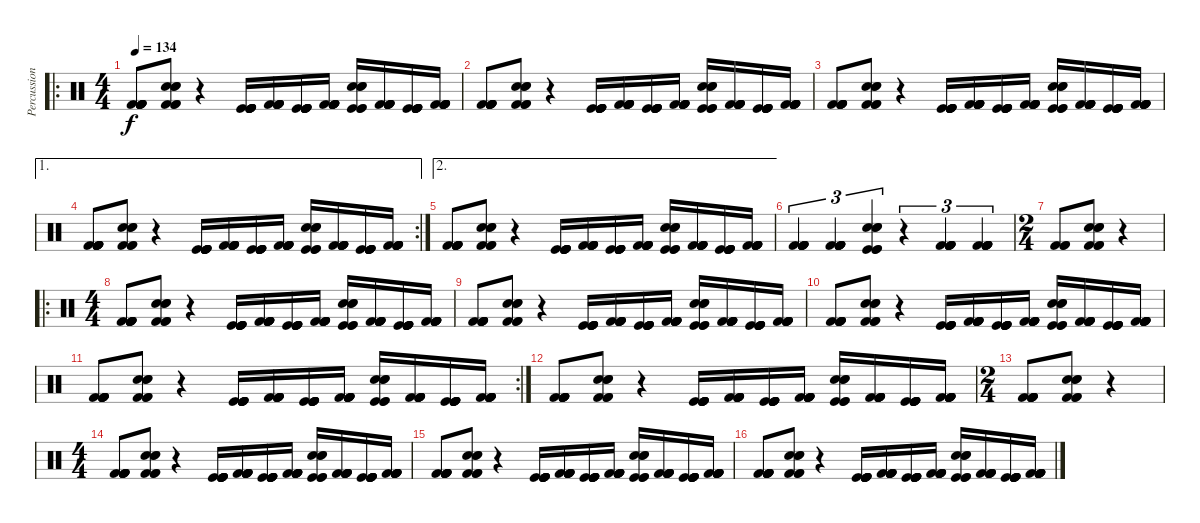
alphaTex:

\track ("Percussion" "Percussion") {instrument percussion}
\staff {score}
\articulation defaults
\ro
\ts (4 4)
\tempo 134
\clef neutral
\ks c
("Kick (hit) 2" "Kick (hit) 2" "Kick (hit) 2" "Kick (hit) 2" "Kick (hit) 2" "Kick (hit) 2").8{dy f} ("Electric Snare (hit)" "Electric Snare (hit)" "Electric Snare (hit)" "Kick (hit) 2" "Kick (hit) 2" "Kick (hit) 2").8 r.4 ("Kick (hit)" "Kick (hit)" "Kick (hit)" "Kick (hit)" "Kick (hit)" "Kick (hit)").16 ("Kick (hit) 2" "Kick (hit) 2" "Kick (hit) 2" "Kick (hit) 2" "Kick (hit) 2" "Kick (hit) 2").16 ("Kick (hit)" "Kick (hit)" "Kick (hit)" "Kick (hit)" "Kick (hit)" "Kick (hit)").16 ("Kick (hit) 2" "Kick (hit) 2" "Kick (hit) 2" "Kick (hit) 2" "Kick (hit) 2" "Kick (hit) 2").16 ("Electric Snare (hit)" "Electric Snare (hit)" "Electric Snare (hit)" "Kick (hit)" "Kick (hit)" "Kick (hit)").16 ("Kick (hit) 2" "Kick (hit) 2" "Kick (hit) 2" "Kick (hit) 2" "Kick (hit) 2" "Kick (hit) 2").16 ("Kick (hit)" "Kick (hit)" "Kick (hit)" "Kick (hit)" "Kick (hit)" "Kick (hit)").16 ("Kick (hit) 2" "Kick (hit) 2" "Kick (hit) 2" "Kick (hit) 2" "Kick (hit) 2" "Kick (hit) 2").16 |
("Kick (hit) 2" "Kick (hit) 2" "Kick (hit) 2" "Kick (hit) 2" "Kick (hit) 2" "Kick (hit) 2").8 ("Electric Snare (hit)" "Electric Snare (hit)" "Electric Snare (hit)" "Kick (hit) 2" "Kick (hit) 2" "Kick (hit) 2").8 r.4 ("Kick (hit)" "Kick (hit)" "Kick (hit)" "Kick (hit)" "Kick (hit)" "Kick (hit)").16 ("Kick (hit) 2" "Kick (hit) 2" "Kick (hit) 2" "Kick (hit) 2" "Kick (hit) 2" "Kick (hit) 2").16 ("Kick (hit)" "Kick (hit)" "Kick (hit)" "Kick (hit)" "Kick (hit)" "Kick (hit)").16 ("Kick (hit) 2" "Kick (hit) 2" "Kick (hit) 2" "Kick (hit) 2" "Kick (hit) 2" "Kick (hit) 2").16 ("Electric Snare (hit)" "Electric Snare (hit)" "Electric Snare (hit)" "Kick (hit)" "Kick (hit)" "Kick (hit)").16 ("Kick (hit) 2" "Kick (hit) 2" "Kick (hit) 2" "Kick (hit) 2" "Kick (hit) 2" "Kick (hit) 2").16 ("Kick (hit)" "Kick (hit)" "Kick (hit)" "Kick (hit)" "Kick (hit)" "Kick (hit)").16 ("Kick (hit) 2" "Kick (hit) 2" "Kick (hit) 2" "Kick (hit) 2" "Kick (hit) 2" "Kick (hit) 2").16 |
("Kick (hit) 2" "Kick (hit) 2" "Kick (hit) 2" "Kick (hit) 2" "Kick (hit) 2" "Kick (hit) 2").8 ("Electric Snare (hit)" "Electric Snare (hit)" "Electric Snare (hit)" "Kick (hit) 2" "Kick (hit) 2" "Kick (hit) 2").8 r.4 ("Kick (hit)" "Kick (hit)" "Kick (hit)" "Kick (hit)" "Kick (hit)" "Kick (hit)").16 ("Kick (hit) 2" "Kick (hit) 2" "Kick (hit) 2" "Kick (hit) 2" "Kick (hit) 2" "Kick (hit) 2").16 ("Kick (hit)" "Kick (hit)" "Kick (hit)" "Kick (hit)" "Kick (hit)" "Kick (hit)").16 ("Kick (hit) 2" "Kick (hit) 2" "Kick (hit) 2" "Kick (hit) 2" "Kick (hit) 2" "Kick (hit) 2").16 ("Electric Snare (hit)" "Electric Snare (hit)" "Electric Snare (hit)" "Kick (hit)" "Kick (hit)" "Kick (hit)").16 ("Kick (hit) 2" "Kick (hit) 2" "Kick (hit) 2" "Kick (hit) 2" "Kick (hit) 2" "Kick (hit) 2").16 ("Kick (hit)" "Kick (hit)" "Kick (hit)" "Kick (hit)" "Kick (hit)" "Kick (hit)").16 ("Kick (hit) 2" "Kick (hit) 2" "Kick (hit) 2" "Kick (hit) 2" "Kick (hit) 2" "Kick (hit) 2").16 |
\ae 1
\rc 2
("Kick (hit) 2" "Kick (hit) 2" "Kick (hit) 2" "Kick (hit) 2" "Kick (hit) 2" "Kick (hit) 2").8 ("Electric Snare (hit)" "Electric Snare (hit)" "Electric Snare (hit)" "Kick (hit) 2" "Kick (hit) 2" "Kick (hit) 2").8 r.4 ("Kick (hit)" "Kick (hit)" "Kick (hit)" "Kick (hit)" "Kick (hit)" "Kick (hit)").16 ("Kick (hit) 2" "Kick (hit) 2" "Kick (hit) 2" "Kick (hit) 2" "Kick (hit) 2" "Kick (hit) 2").16 ("Kick (hit)" "Kick (hit)" "Kick (hit)" "Kick (hit)" "Kick (hit)" "Kick (hit)").16 ("Kick (hit) 2" "Kick (hit) 2" "Kick (hit) 2" "Kick (hit) 2" "Kick (hit) 2" "Kick (hit) 2").16 ("Electric Snare (hit)" "Electric Snare (hit)" "Electric Snare (hit)" "Kick (hit)" "Kick (hit)" "Kick (hit)").16 ("Kick (hit) 2" "Kick (hit) 2" "Kick (hit) 2" "Kick (hit) 2" "Kick (hit) 2" "Kick (hit) 2").16 ("Kick (hit)" "Kick (hit)" "Kick (hit)" "Kick (hit)" "Kick (hit)" "Kick (hit)").16 ("Kick (hit) 2" "Kick (hit) 2" "Kick (hit) 2" "Kick (hit) 2" "Kick (hit) 2" "Kick (hit) 2").16 |
\ae 2
("Kick (hit) 2" "Kick (hit) 2" "Kick (hit) 2" "Kick (hit) 2" "Kick (hit) 2" "Kick (hit) 2").8 ("Electric Snare (hit)" "Electric Snare (hit)" "Electric Snare (hit)" "Kick (hit) 2" "Kick (hit) 2" "Kick (hit) 2").8 r.4 ("Kick (hit)" "Kick (hit)" "Kick (hit)" "Kick (hit)" "Kick (hit)" "Kick (hit)").16 ("Kick (hit) 2" "Kick (hit) 2" "Kick (hit) 2" "Kick (hit) 2" "Kick (hit) 2" "Kick (hit) 2").16 ("Kick (hit)" "Kick (hit)" "Kick (hit)" "Kick (hit)" "Kick (hit)" "Kick (hit)").16 ("Kick (hit) 2" "Kick (hit) 2" "Kick (hit) 2" "Kick (hit) 2" "Kick (hit) 2" "Kick (hit) 2").16 ("Electric Snare (hit)" "Electric Snare (hit)" "Electric Snare (hit)" "Kick (hit)" "Kick (hit)" "Kick (hit)").16 ("Kick (hit) 2" "Kick (hit) 2" "Kick (hit) 2" "Kick (hit) 2" "Kick (hit) 2" "Kick (hit) 2").16 ("Kick (hit)" "Kick (hit)" "Kick (hit)" "Kick (hit)" "Kick (hit)" "Kick (hit)").16 ("Kick (hit) 2" "Kick (hit) 2" "Kick (hit) 2" "Kick (hit) 2" "Kick (hit) 2" "Kick (hit) 2").16 |
("Kick (hit) 2" "Kick (hit) 2" "Kick (hit) 2" "Kick (hit) 2" "Kick (hit) 2" "Kick (hit) 2").4{tu (3 2)} ("Kick (hit) 2" "Kick (hit) 2" "Kick (hit) 2" "Kick (hit) 2" "Kick (hit) 2" "Kick (hit) 2").4{tu (3 2)} ("Electric Snare (hit)" "Electric Snare (hit)" "Electric Snare (hit)" "Kick (hit)" "Kick (hit)" "Kick (hit)").4{tu (3 2)} r.4{tu (3 2)} ("Kick (hit) 2" "Kick (hit) 2" "Kick (hit) 2" "Kick (hit) 2" "Kick (hit) 2" "Kick (hit) 2").4{tu (3 2)} ("Kick (hit) 2" "Kick (hit) 2" "Kick (hit) 2" "Kick (hit) 2" "Kick (hit) 2" "Kick (hit) 2").4{tu (3 2)} |
\ts (2 4)
("Kick (hit) 2" "Kick (hit) 2" "Kick (hit) 2").8 ("Electric Snare (hit)" "Electric Snare (hit)" "Electric Snare (hit)" "Kick (hit) 2" "Kick (hit) 2" "Kick (hit) 2").8 r.4 |
\ro
\ts (4 4)
("Kick (hit) 2" "Kick (hit) 2" "Kick (hit) 2" "Kick (hit) 2" "Kick (hit) 2" "Kick (hit) 2").8 ("Kick (hit) 2" "Kick (hit) 2" "Kick (hit) 2" "Electric Snare (hit)" "Electric Snare (hit)" "Electric Snare (hit)").8 r.4 ("Kick (hit)" "Kick (hit)" "Kick (hit)" "Kick (hit)" "Kick (hit)" "Kick (hit)").16 ("Kick (hit) 2" "Kick (hit) 2" "Kick (hit) 2" "Kick (hit) 2" "Kick (hit) 2" "Kick (hit) 2").16 ("Kick (hit)" "Kick (hit)" "Kick (hit)" "Kick (hit)" "Kick (hit)" "Kick (hit)").16 ("Kick (hit) 2" "Kick (hit) 2" "Kick (hit) 2" "Kick (hit) 2" "Kick (hit) 2" "Kick (hit) 2").16 ("Electric Snare (hit)" "Electric Snare (hit)" "Electric Snare (hit)" "Kick (hit)" "Kick (hit)" "Kick (hit)").16 ("Kick (hit) 2" "Kick (hit) 2" "Kick (hit) 2" "Kick (hit) 2" "Kick (hit) 2" "Kick (hit) 2").16 ("Kick (hit)" "Kick (hit)" "Kick (hit)" "Kick (hit)" "Kick (hit)" "Kick (hit)").16 ("Kick (hit) 2" "Kick (hit) 2" "Kick (hit) 2" "Kick (hit) 2" "Kick (hit) 2" "Kick (hit) 2").16 |
("Kick (hit) 2" "Kick (hit) 2" "Kick (hit) 2" "Kick (hit) 2" "Kick (hit) 2" "Kick (hit) 2").8 ("Electric Snare (hit)" "Electric Snare (hit)" "Electric Snare (hit)" "Kick (hit) 2" "Kick (hit) 2" "Kick (hit) 2").8 r.4 ("Kick (hit)" "Kick (hit)" "Kick (hit)" "Kick (hit)" "Kick (hit)" "Kick (hit)").16 ("Kick (hit) 2" "Kick (hit) 2" "Kick (hit) 2" "Kick (hit) 2" "Kick (hit) 2" "Kick (hit) 2").16 ("Kick (hit)" "Kick (hit)" "Kick (hit)" "Kick (hit)" "Kick (hit)" "Kick (hit)").16 ("Kick (hit) 2" "Kick (hit) 2" "Kick (hit) 2" "Kick (hit) 2" "Kick (hit) 2" "Kick (hit) 2").16 ("Electric Snare (hit)" "Electric Snare (hit)" "Electric Snare (hit)" "Kick (hit)" "Kick (hit)" "Kick (hit)").16 ("Kick (hit) 2" "Kick (hit) 2" "Kick (hit) 2" "Kick (hit) 2" "Kick (hit) 2" "Kick (hit) 2").16 ("Kick (hit)" "Kick (hit)" "Kick (hit)" "Kick (hit)" "Kick (hit)" "Kick (hit)").16 ("Kick (hit) 2" "Kick (hit) 2" "Kick (hit) 2" "Kick (hit) 2" "Kick (hit) 2" "Kick (hit) 2").16 |
("Kick (hit) 2" "Kick (hit) 2" "Kick (hit) 2" "Kick (hit) 2" "Kick (hit) 2" "Kick (hit) 2").8 ("Electric Snare (hit)" "Electric Snare (hit)" "Electric Snare (hit)" "Kick (hit) 2" "Kick (hit) 2" "Kick (hit) 2").8 r.4 ("Kick (hit)" "Kick (hit)" "Kick (hit)" "Kick (hit)" "Kick (hit)" "Kick (hit)").16 ("Kick (hit) 2" "Kick (hit) 2" "Kick (hit) 2" "Kick (hit) 2" "Kick (hit) 2" "Kick (hit) 2").16 ("Kick (hit)" "Kick (hit)" "Kick (hit)" "Kick (hit)" "Kick (hit)" "Kick (hit)").16 ("Kick (hit) 2" "Kick (hit) 2" "Kick (hit) 2" "Kick (hit) 2" "Kick (hit) 2" "Kick (hit) 2").16 ("Electric Snare (hit)" "Electric Snare (hit)" "Electric Snare (hit)" "Kick (hit)" "Kick (hit)" "Kick (hit)").16 ("Kick (hit) 2" "Kick (hit) 2" "Kick (hit) 2" "Kick (hit) 2" "Kick (hit) 2" "Kick (hit) 2").16 ("Kick (hit)" "Kick (hit)" "Kick (hit)" "Kick (hit)" "Kick (hit)" "Kick (hit)").16 ("Kick (hit) 2" "Kick (hit) 2" "Kick (hit) 2" "Kick (hit) 2" "Kick (hit) 2" "Kick (hit) 2").16 |
\rc 2
("Kick (hit) 2" "Kick (hit) 2" "Kick (hit) 2" "Kick (hit) 2" "Kick (hit) 2" "Kick (hit) 2").8 ("Electric Snare (hit)" "Electric Snare (hit)" "Electric Snare (hit)" "Kick (hit) 2" "Kick (hit) 2" "Kick (hit) 2").8 r.4 ("Kick (hit)" "Kick (hit)" "Kick (hit)" "Kick (hit)" "Kick (hit)" "Kick (hit)").16 ("Kick (hit) 2" "Kick (hit) 2" "Kick (hit) 2" "Kick (hit) 2" "Kick (hit) 2" "Kick (hit) 2").16 ("Kick (hit)" "Kick (hit)" "Kick (hit)" "Kick (hit)" "Kick (hit)" "Kick (hit)").16 ("Kick (hit) 2" "Kick (hit) 2" "Kick (hit) 2" "Kick (hit) 2" "Kick (hit) 2" "Kick (hit) 2").16 ("Electric Snare (hit)" "Electric Snare (hit)" "Electric Snare (hit)" "Kick (hit)" "Kick (hit)" "Kick (hit)").16 ("Kick (hit) 2" "Kick (hit) 2" "Kick (hit) 2" "Kick (hit) 2" "Kick (hit) 2" "Kick (hit) 2").16 ("Kick (hit)" "Kick (hit)" "Kick (hit)" "Kick (hit)" "Kick (hit)" "Kick (hit)").16 ("Kick (hit) 2" "Kick (hit) 2" "Kick (hit) 2" "Kick (hit) 2" "Kick (hit) 2" "Kick (hit) 2").16 |
("Kick (hit) 2" "Kick (hit) 2" "Kick (hit) 2" "Kick (hit) 2" "Kick (hit) 2" "Kick (hit) 2").8 ("Electric Snare (hit)" "Electric Snare (hit)" "Electric Snare (hit)" "Kick (hit) 2" "Kick (hit) 2" "Kick (hit) 2").8 r.4 ("Kick (hit)" "Kick (hit)" "Kick (hit)" "Kick (hit)" "Kick (hit)" "Kick (hit)").16 ("Kick (hit) 2" "Kick (hit) 2" "Kick (hit) 2" "Kick (hit) 2" "Kick (hit) 2" "Kick (hit) 2").16 ("Kick (hit)" "Kick (hit)" "Kick (hit)" "Kick (hit)" "Kick (hit)" "Kick (hit)").16 ("Kick (hit) 2" "Kick (hit) 2" "Kick (hit) 2" "Kick (hit) 2" "Kick (hit) 2" "Kick (hit) 2").16 ("Electric Snare (hit)" "Electric Snare (hit)" "Electric Snare (hit)" "Kick (hit)" "Kick (hit)" "Kick (hit)").16 ("Kick (hit) 2" "Kick (hit) 2" "Kick (hit) 2" "Kick (hit) 2" "Kick (hit) 2" "Kick (hit) 2").16 ("Kick (hit)" "Kick (hit)" "Kick (hit)" "Kick (hit)" "Kick (hit)" "Kick (hit)").16 ("Kick (hit) 2" "Kick (hit) 2" "Kick (hit) 2" "Kick (hit) 2" "Kick (hit) 2" "Kick (hit) 2").16 |
\ts (2 4)
("Kick (hit) 2" "Kick (hit) 2" "Kick (hit) 2" "Kick (hit) 2" "Kick (hit) 2" "Kick (hit) 2").8 ("Electric Snare (hit)" "Electric Snare (hit)" "Electric Snare (hit)" "Kick (hit) 2" "Kick (hit) 2" "Kick (hit) 2").8 r.4 |
\ts (4 4)
("Kick (hit) 2" "Kick (hit) 2" "Kick (hit) 2" "Kick (hit) 2" "Kick (hit) 2" "Kick (hit) 2").8 ("Electric Snare (hit)" "Electric Snare (hit)" "Electric Snare (hit)" "Kick (hit) 2" "Kick (hit) 2" "Kick (hit) 2").8 r.4 ("Kick (hit)" "Kick (hit)" "Kick (hit)" "Kick (hit)" "Kick (hit)" "Kick (hit)").16 ("Kick (hit) 2" "Kick (hit) 2" "Kick (hit) 2" "Kick (hit) 2" "Kick (hit) 2" "Kick (hit) 2").16 ("Kick (hit)" "Kick (hit)" "Kick (hit)" "Kick (hit)" "Kick (hit)" "Kick (hit)").16 ("Kick (hit) 2" "Kick (hit) 2" "Kick (hit) 2" "Kick (hit) 2" "Kick (hit) 2" "Kick (hit) 2").16 ("Electric Snare (hit)" "Electric Snare (hit)" "Electric Snare (hit)" "Kick (hit)" "Kick (hit)" "Kick (hit)").16 ("Kick (hit) 2" "Kick (hit) 2" "Kick (hit) 2" "Kick (hit) 2" "Kick (hit) 2" "Kick (hit) 2").16 ("Kick (hit)" "Kick (hit)" "Kick (hit)" "Kick (hit)" "Kick (hit)" "Kick (hit)").16 ("Kick (hit) 2" "Kick (hit) 2" "Kick (hit) 2" "Kick (hit) 2" "Kick (hit) 2" "Kick (hit) 2").16 |
("Kick (hit) 2" "Kick (hit) 2" "Kick (hit) 2" "Kick (hit) 2" "Kick (hit) 2" "Kick (hit) 2").8 ("Electric Snare (hit)" "Electric Snare (hit)" "Electric Snare (hit)" "Kick (hit) 2" "Kick (hit) 2" "Kick (hit) 2").8 r.4 ("Kick (hit)" "Kick (hit)" "Kick (hit)" "Kick (hit)" "Kick (hit)" "Kick (hit)").16 ("Kick (hit) 2" "Kick (hit) 2" "Kick (hit) 2" "Kick (hit) 2" "Kick (hit) 2" "Kick (hit) 2").16 ("Kick (hit)" "Kick (hit)" "Kick (hit)" "Kick (hit)" "Kick (hit)" "Kick (hit)").16 ("Kick (hit) 2" "Kick (hit) 2" "Kick (hit) 2" "Kick (hit) 2" "Kick (hit) 2" "Kick (hit) 2").16 ("Electric Snare (hit)" "Electric Snare (hit)" "Electric Snare (hit)" "Kick (hit)" "Kick (hit)" "Kick (hit)").16 ("Kick (hit) 2" "Kick (hit) 2" "Kick (hit) 2" "Kick (hit) 2" "Kick (hit) 2" "Kick (hit) 2").16 ("Kick (hit)" "Kick (hit)" "Kick (hit)" "Kick (hit)" "Kick (hit)" "Kick (hit)").16 ("Kick (hit) 2" "Kick (hit) 2" "Kick (hit) 2" "Kick (hit) 2" "Kick (hit) 2" "Kick (hit) 2").16 |
("Kick (hit) 2" "Kick (hit) 2" "Kick (hit) 2" "Kick (hit) 2" "Kick (hit) 2" "Kick (hit) 2").8 ("Electric Snare (hit)" "Electric Snare (hit)" "Electric Snare (hit)" "Kick (hit) 2" "Kick (hit) 2" "Kick (hit) 2").8 r.4 ("Kick (hit)" "Kick (hit)" "Kick (hit)" "Kick (hit)" "Kick (hit)" "Kick (hit)").16 ("Kick (hit) 2" "Kick (hit) 2" "Kick (hit) 2" "Kick (hit) 2" "Kick (hit) 2" "Kick (hit) 2").16 ("Kick (hit)" "Kick (hit)" "Kick (hit)" "Kick (hit)" "Kick (hit)" "Kick (hit)").16 ("Kick (hit) 2" "Kick (hit) 2" "Kick (hit) 2" "Kick (hit) 2" "Kick (hit) 2" "Kick (hit) 2").16 ("Electric Snare (hit)" "Electric Snare (hit)" "Electric Snare (hit)" "Kick (hit)" "Kick (hit)" "Kick (hit)").16 ("Kick (hit) 2" "Kick (hit) 2" "Kick (hit) 2" "Kick (hit) 2" "Kick (hit) 2" "Kick (hit) 2").16 ("Kick (hit)" "Kick (hit)" "Kick (hit)" "Kick (hit)" "Kick (hit)" "Kick (hit)").16 ("Kick (hit) 2" "Kick (hit) 2" "Kick (hit) 2" "Kick (hit) 2" "Kick (hit) 2" "Kick (hit) 2").16
